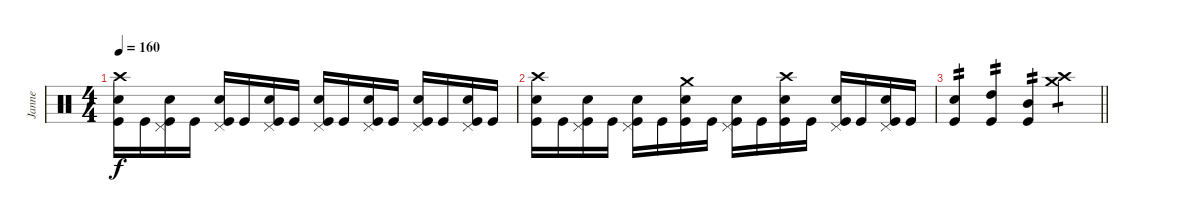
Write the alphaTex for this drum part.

\track ("Janne" "Janne") {instrument percussion}
\staff {score}
\articulation defaults
\ts (4 4)
\tempo 160
\clef neutral
\ks c
("Crash high (hit)" "Snare (hit) 2" "Kick (hit)").16{dy f} "Kick (hit)".16 ("Pedal Hi-Hat (hit)" "Snare (hit) 2" "Kick (hit)").16 "Kick (hit)".16 ("Pedal Hi-Hat (hit)" "Snare (hit) 2" "Kick (hit)").16 "Kick (hit)".16 ("Pedal Hi-Hat (hit)" "Snare (hit) 2" "Kick (hit)").16 "Kick (hit)".16 ("Pedal Hi-Hat (hit)" "Snare (hit) 2" "Kick (hit)").16 "Kick (hit)".16 ("Pedal Hi-Hat (hit)" "Snare (hit) 2" "Kick (hit)").16 "Kick (hit)".16 ("Pedal Hi-Hat (hit)" "Snare (hit) 2" "Kick (hit)").16 "Kick (hit)".16 ("Pedal Hi-Hat (hit)" "Snare (hit) 2" "Kick (hit)").16 "Kick (hit)".16 |
("Crash high (hit)" "Snare (hit) 2" "Kick (hit)").16 "Kick (hit)".16 ("Pedal Hi-Hat (hit)" "Snare (hit) 2" "Kick (hit)").16 "Kick (hit)".16 ("Pedal Hi-Hat (hit)" "Snare (hit) 2" "Kick (hit)").16 "Kick (hit)".16 ("Crash medium (hit)" "Snare (hit) 2" "Kick (hit)").16 "Kick (hit)".16 ("Pedal Hi-Hat (hit)" "Snare (hit) 2" "Kick (hit)").16 "Kick (hit)".16 ("Crash high (hit)" "Snare (hit) 2" "Kick (hit)").16 "Kick (hit)".16 ("Pedal Hi-Hat (hit)" "Snare (hit) 2" "Kick (hit)").16 "Kick (hit)".16 ("Pedal Hi-Hat (hit)" "Snare (hit) 2" "Kick (hit)").16 "Kick (hit)".16 |
\barLineRight lightlight
("Snare (hit) 2" "Kick (hit)").4{tp 2} ("High Tom (hit)" "Kick (hit)").4{tp 2} ("Mid Tom (hit)" "Kick (hit)").4{tp 2} ("Crash high (hit)" "Crash medium (hit)").4{tp 1}
